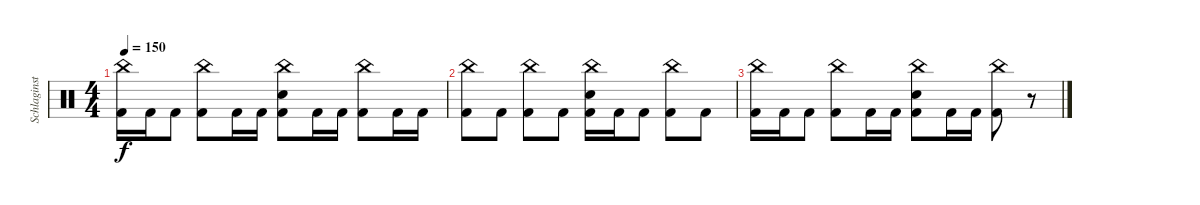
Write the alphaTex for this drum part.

\track ("Schlaginstrumente - Auswahl" "Schlaginst") {instrument percussion}
\staff {score}
\articulation defaults
\ts (4 4)
\tempo 150
\clef neutral
\ks c
("China (hit)" "Kick (hit) 2").16{dy f} "Kick (hit) 2".16 "Kick (hit) 2".8 ("China (hit)" "Kick (hit) 2").8 "Kick (hit) 2".16 "Kick (hit) 2".16 ("China (hit)" "Snare (hit) 2" "Kick (hit) 2").8 "Kick (hit) 2".16 "Kick (hit) 2".16 ("China (hit)" "Kick (hit) 2").8 "Kick (hit) 2".16 "Kick (hit) 2".16 |
("China (hit)" "Kick (hit) 2").8 "Kick (hit) 2".8 ("China (hit)" "Kick (hit) 2").8 "Kick (hit) 2".8 ("China (hit)" "Snare (hit) 2" "Kick (hit) 2").16 "Kick (hit) 2".16 "Kick (hit) 2".8 ("China (hit)" "Kick (hit) 2").8 "Kick (hit) 2".8 |
("China (hit)" "Kick (hit) 2").16 "Kick (hit) 2".16 "Kick (hit) 2".8 ("China (hit)" "Kick (hit) 2").8 "Kick (hit) 2".16 "Kick (hit) 2".16 ("China (hit)" "Snare (hit) 2" "Kick (hit) 2").8 "Kick (hit) 2".16 "Kick (hit) 2".16 ("China (hit)" "Kick (hit) 2").8 r.8
